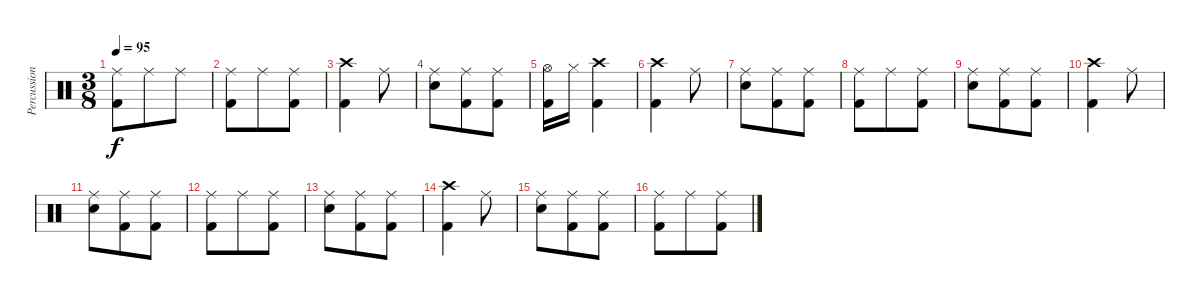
\track ("Percussion" "Percussion") {instrument percussion}
\staff {score}
\articulation defaults
\ts (3 8)
\tempo 95
\clef neutral
\ks c
("Ride (middle)" "Kick (hit) 2").8{dy f} "Ride (middle)".8 "Ride (middle)".8 |
("Ride (middle)" "Kick (hit) 2").8 "Ride (middle)".8 ("Ride (middle)" "Kick (hit) 2").8 |
("Crash high (hit)" "Kick (hit) 2").4 "Ride (middle)".8 |
("Ride (middle)" "Snare (hit) 2").8 ("Ride (middle)" "Kick (hit) 2").8 ("Ride (middle)" "Kick (hit) 2").8 |
("Hi-Hat (open)" "Kick (hit) 2").16 "Hi-Hat (closed)".16 ("Crash high (hit)" "Kick (hit) 2").4 |
("Crash high (hit)" "Kick (hit) 2").4 "Ride (middle)".8 |
("Ride (middle)" "Snare (hit) 2").8 ("Ride (middle)" "Kick (hit) 2").8 ("Ride (middle)" "Kick (hit) 2").8 |
("Ride (middle)" "Kick (hit) 2").8 "Ride (middle)".8 ("Ride (middle)" "Kick (hit) 2").8 |
("Ride (middle)" "Snare (hit) 2").8 ("Ride (middle)" "Kick (hit) 2").8 ("Ride (middle)" "Kick (hit) 2").8 |
("Crash high (hit)" "Kick (hit) 2").4 "Ride (middle)".8 |
("Ride (middle)" "Snare (hit) 2").8 ("Ride (middle)" "Kick (hit) 2").8 ("Ride (middle)" "Kick (hit) 2").8 |
("Ride (middle)" "Kick (hit) 2").8 "Ride (middle)".8 ("Ride (middle)" "Kick (hit) 2").8 |
("Ride (middle)" "Snare (hit) 2").8 ("Ride (middle)" "Kick (hit) 2").8 ("Ride (middle)" "Kick (hit) 2").8 |
("Crash high (hit)" "Kick (hit) 2").4 "Ride (middle)".8 |
("Ride (middle)" "Snare (hit) 2").8 ("Ride (middle)" "Kick (hit) 2").8 ("Ride (middle)" "Kick (hit) 2").8 |
("Ride (middle)" "Kick (hit) 2").8 "Ride (middle)".8 ("Ride (middle)" "Kick (hit) 2").8
